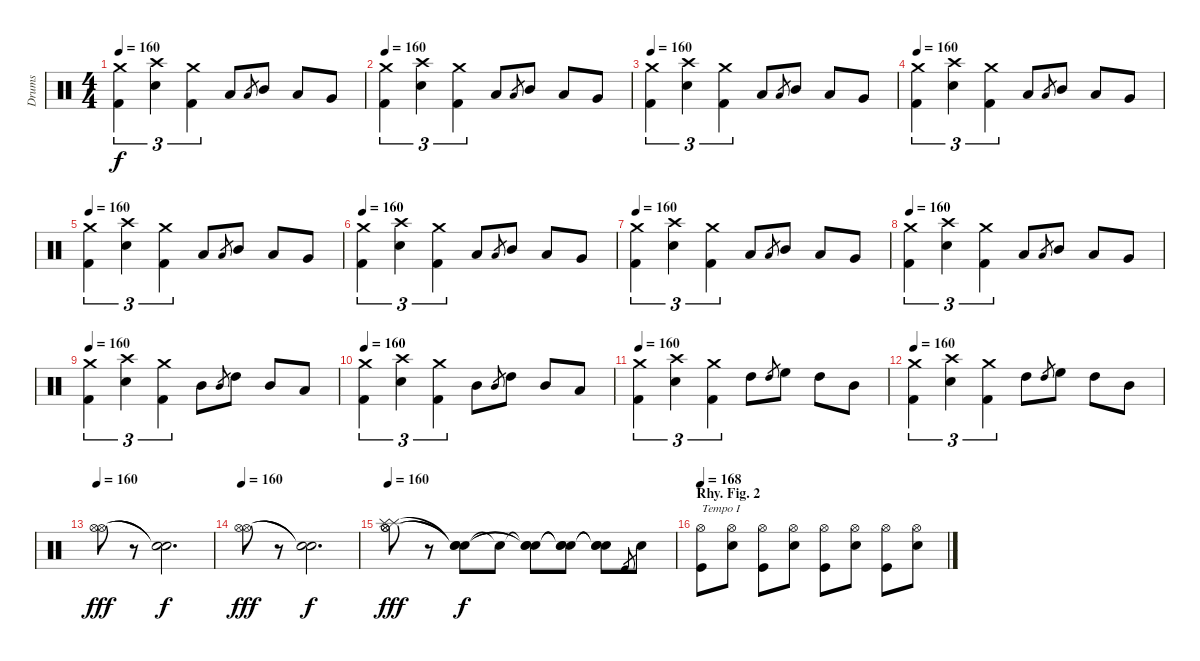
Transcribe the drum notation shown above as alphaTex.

\track ("Drums" "Drums") {instrument percussion}
\staff {score}
\articulation defaults
\ts (4 4)
\tempo 160
\clef neutral
\ks c
("Crash medium (hit)" "Kick (hit) 2").4{tu (3 2) dy f} ("Crash high (hit)" "Snare (hit) 2").4{tu (3 2)} ("Crash medium (hit)" "Kick (hit) 2").4{tu (3 2)} "Low Tom (hit)".8 "Low Tom (hit)".8{gr} "Mid Tom (hit)".8 "Low Tom (hit)".8 "Very Low Tom (hit)".8 |
\tempo 160
("Crash medium (hit)" "Kick (hit) 2").4{tu (3 2)} ("Crash high (hit)" "Snare (hit) 2").4{tu (3 2)} ("Crash medium (hit)" "Kick (hit) 2").4{tu (3 2)} "Low Tom (hit)".8 "Low Tom (hit)".8{gr} "Mid Tom (hit)".8 "Low Tom (hit)".8 "Very Low Tom (hit)".8 |
\tempo 160
("Crash medium (hit)" "Kick (hit) 2").4{tu (3 2)} ("Crash high (hit)" "Snare (hit) 2").4{tu (3 2)} ("Crash medium (hit)" "Kick (hit) 2").4{tu (3 2)} "Low Tom (hit)".8 "Low Tom (hit)".8{gr} "Mid Tom (hit)".8 "Low Tom (hit)".8 "Very Low Tom (hit)".8 |
\tempo 160
("Crash medium (hit)" "Kick (hit) 2").4{tu (3 2)} ("Crash high (hit)" "Snare (hit) 2").4{tu (3 2)} ("Crash medium (hit)" "Kick (hit) 2").4{tu (3 2)} "Low Tom (hit)".8 "Low Tom (hit)".8{gr} "Mid Tom (hit)".8 "Low Tom (hit)".8 "Very Low Tom (hit)".8 |
\tempo 160
("Crash medium (hit)" "Kick (hit) 2").4{tu (3 2)} ("Crash high (hit)" "Snare (hit) 2").4{tu (3 2)} ("Crash medium (hit)" "Kick (hit) 2").4{tu (3 2)} "Low Tom (hit)".8 "Low Tom (hit)".8{gr} "Mid Tom (hit)".8 "Low Tom (hit)".8 "Very Low Tom (hit)".8 |
\tempo 160
("Crash medium (hit)" "Kick (hit) 2").4{tu (3 2)} ("Crash high (hit)" "Snare (hit) 2").4{tu (3 2)} ("Crash medium (hit)" "Kick (hit) 2").4{tu (3 2)} "Low Tom (hit)".8 "Low Tom (hit)".8{gr} "Mid Tom (hit)".8 "Low Tom (hit)".8 "Very Low Tom (hit)".8 |
\tempo 160
("Crash medium (hit)" "Kick (hit) 2").4{tu (3 2)} ("Crash high (hit)" "Snare (hit) 2").4{tu (3 2)} ("Crash medium (hit)" "Kick (hit) 2").4{tu (3 2)} "Low Tom (hit)".8 "Low Tom (hit)".8{gr} "Mid Tom (hit)".8 "Low Tom (hit)".8 "Very Low Tom (hit)".8 |
\tempo 160
("Crash medium (hit)" "Kick (hit) 2").4{tu (3 2)} ("Crash high (hit)" "Snare (hit) 2").4{tu (3 2)} ("Crash medium (hit)" "Kick (hit) 2").4{tu (3 2)} "Low Tom (hit)".8 "Low Tom (hit)".8{gr} "Mid Tom (hit)".8 "Low Tom (hit)".8 "Very Low Tom (hit)".8 |
\tempo 160
("Crash medium (hit)" "Kick (hit) 2").4{tu (3 2)} ("Crash high (hit)" "Snare (hit) 2").4{tu (3 2)} ("Crash medium (hit)" "Kick (hit) 2").4{tu (3 2)} "Mid Tom (hit)".8 "Mid Tom (hit)".8{gr} "High Tom (hit)".8 "Mid Tom (hit)".8 "Low Tom (hit)".8 |
\tempo 160
("Crash medium (hit)" "Kick (hit) 2").4{tu (3 2)} ("Crash high (hit)" "Snare (hit) 2").4{tu (3 2)} ("Crash medium (hit)" "Kick (hit) 2").4{tu (3 2)} "Mid Tom (hit)".8 "Mid Tom (hit)".8{gr} "High Tom (hit)".8 "Mid Tom (hit)".8 "Low Tom (hit)".8 |
\tempo 160
("Crash medium (hit)" "Kick (hit) 2").4{tu (3 2)} ("Crash high (hit)" "Snare (hit) 2").4{tu (3 2)} ("Crash medium (hit)" "Kick (hit) 2").4{tu (3 2)} "High Tom (hit)".8 "High Tom (hit)".8{gr} "High Floor Tom (hit)".8 "High Tom (hit)".8 "Mid Tom (hit)".8 |
\tempo 160
("Crash medium (hit)" "Kick (hit) 2").4{tu (3 2)} ("Crash high (hit)" "Snare (hit) 2").4{tu (3 2)} ("Crash medium (hit)" "Kick (hit) 2").4{tu (3 2)} "High Tom (hit)".8 "High Tom (hit)".8{gr} "High Floor Tom (hit)".8 "High Tom (hit)".8 "Mid Tom (hit)".8 |
\tempo 160
("Hi-Hat (open)" "Hi-Hat (open)").8{dy fff} r.8 ("Snare (hit)"{t} "Snare (hit)"{t}).2{d dy f} |
\tempo 160
("Hi-Hat (open)" "Hi-Hat (open)").8{dy fff} r.8 ("Snare (hit)"{t} "Snare (hit)"{t}).2{d dy f} |
\tempo 160
("Hi-Hat (open)" "Hi-Hat (open)" "Splash (hit)" "Splash (hit)").8{dy fff} r.8 ("Snare (hit)"{t} "Snare (hit)"{t} "Snare (hit)"{t}).8{dy f} "Snare (hit)"{t}.8 ("Snare (hit)"{t} "Snare (hit)"{t} "Snare (hit)"{t}).8 ("Snare (hit)"{t} "Snare (hit)"{t} "Snare (hit)"{t}).8 ("Snare (hit)"{t} "Snare (hit)"{t} "Snare (hit)"{t}).8 "Kick (hit)".8{gr} "Snare (hit) 2".8 |
\section ("" "Rhy. Fig. 2")
\tempo 168
("Hi-Hat (open)" "Kick (hit)").8{txt "Tempo I"} ("Hi-Hat (open)" "Snare (hit) 2").8 ("Hi-Hat (open)" "Kick (hit)").8 ("Hi-Hat (open)" "Snare (hit) 2").8 ("Hi-Hat (open)" "Kick (hit)").8 ("Hi-Hat (open)" "Snare (hit) 2").8 ("Hi-Hat (open)" "Kick (hit)").8 ("Hi-Hat (open)" "Snare (hit) 2").8
